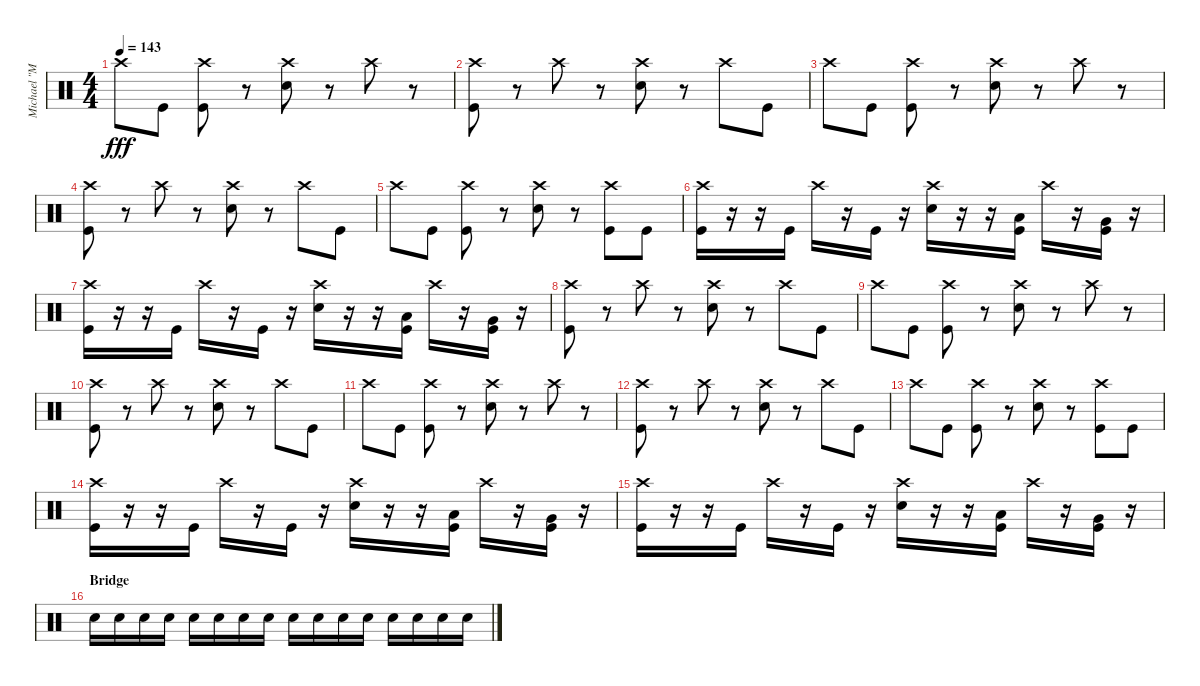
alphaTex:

\track ("Michael \"Moose\" Thomas" "Michael \"M") {instrument percussion}
\staff {score}
\articulation defaults
\ts (4 4)
\tempo 143
\clef neutral
\ks c "Crash high (hit)".8{dy fff} "Kick (hit)".8
("Kick (hit)" "Crash high (hit)").8 r.8 ("Snare (hit) 2" "Crash high (hit)").8 r.8 "Crash high (hit)".8 r.8 |
("Kick (hit)" "Crash high (hit)").8 r.8 "Crash high (hit)".8 r.8 ("Snare (hit) 2" "Crash high (hit)").8 r.8 "Crash high (hit)".8 "Kick (hit)".8 |
"Crash high (hit)".8 "Kick (hit)".8 ("Kick (hit)" "Crash high (hit)").8 r.8 ("Snare (hit) 2" "Crash high (hit)").8 r.8 "Crash high (hit)".8 r.8 |
("Kick (hit)" "Crash high (hit)").8 r.8 "Crash high (hit)".8 r.8 ("Snare (hit) 2" "Crash high (hit)").8 r.8 "Crash high (hit)".8 "Kick (hit)".8 |
"Crash high (hit)".8 "Kick (hit)".8 ("Kick (hit)" "Crash high (hit)").8 r.8 ("Snare (hit) 2" "Crash high (hit)").8 r.8 ("Crash high (hit)" "Kick (hit)").8 "Kick (hit)".8 |
("Kick (hit)" "Crash high (hit)").16 r.16 r.16 "Kick (hit)".16 "Crash high (hit)".16 r.16 "Kick (hit)".16 r.16 ("Snare (hit) 2" "Crash high (hit)").16 r.16 r.16 ("Kick (hit)" "Low Tom (hit)").16 "Crash high (hit)".16 r.16 ("Kick (hit)" "Very Low Tom (hit)").16 r.16 |
("Kick (hit)" "Crash high (hit)").16 r.16 r.16 "Kick (hit)".16 "Crash high (hit)".16 r.16 "Kick (hit)".16 r.16 ("Snare (hit) 2" "Crash high (hit)").16 r.16 r.16 ("Kick (hit)" "Low Tom (hit)").16 "Crash high (hit)".16 r.16 ("Kick (hit)" "Very Low Tom (hit)").16 r.16 |
("Kick (hit)" "Crash high (hit)").8 r.8 "Crash high (hit)".8 r.8 ("Snare (hit) 2" "Crash high (hit)").8 r.8 "Crash high (hit)".8 "Kick (hit)".8 |
"Crash high (hit)".8 "Kick (hit)".8 ("Kick (hit)" "Crash high (hit)").8 r.8 ("Snare (hit) 2" "Crash high (hit)").8 r.8 "Crash high (hit)".8 r.8 |
("Kick (hit)" "Crash high (hit)").8 r.8 "Crash high (hit)".8 r.8 ("Snare (hit) 2" "Crash high (hit)").8 r.8 "Crash high (hit)".8 "Kick (hit)".8 |
"Crash high (hit)".8 "Kick (hit)".8 ("Kick (hit)" "Crash high (hit)").8 r.8 ("Snare (hit) 2" "Crash high (hit)").8 r.8 "Crash high (hit)".8 r.8 |
("Kick (hit)" "Crash high (hit)").8 r.8 "Crash high (hit)".8 r.8 ("Snare (hit) 2" "Crash high (hit)").8 r.8 "Crash high (hit)".8 "Kick (hit)".8 |
"Crash high (hit)".8 "Kick (hit)".8 ("Kick (hit)" "Crash high (hit)").8 r.8 ("Snare (hit) 2" "Crash high (hit)").8 r.8 ("Crash high (hit)" "Kick (hit)").8 "Kick (hit)".8 |
("Kick (hit)" "Crash high (hit)").16 r.16 r.16 "Kick (hit)".16 "Crash high (hit)".16 r.16 "Kick (hit)".16 r.16 ("Snare (hit) 2" "Crash high (hit)").16 r.16 r.16 ("Kick (hit)" "Low Tom (hit)").16 "Crash high (hit)".16 r.16 ("Kick (hit)" "Very Low Tom (hit)").16 r.16 |
("Kick (hit)" "Crash high (hit)").16 r.16 r.16 "Kick (hit)".16 "Crash high (hit)".16 r.16 "Kick (hit)".16 r.16 ("Snare (hit) 2" "Crash high (hit)").16 r.16 r.16 ("Kick (hit)" "Low Tom (hit)").16 "Crash high (hit)".16 r.16 ("Kick (hit)" "Very Low Tom (hit)").16 r.16 |
\section ("" "Bridge")
"Snare (hit) 2".16 "Snare (hit) 2".16 "Snare (hit) 2".16 "Snare (hit) 2".16 "Snare (hit) 2".16 "Snare (hit) 2".16 "Snare (hit) 2".16 "Snare (hit) 2".16 "Snare (hit) 2".16 "Snare (hit) 2".16 "Snare (hit) 2".16 "Snare (hit) 2".16 "Snare (hit) 2".16 "Snare (hit) 2".16 "Snare (hit) 2".16 "Snare (hit) 2".16
